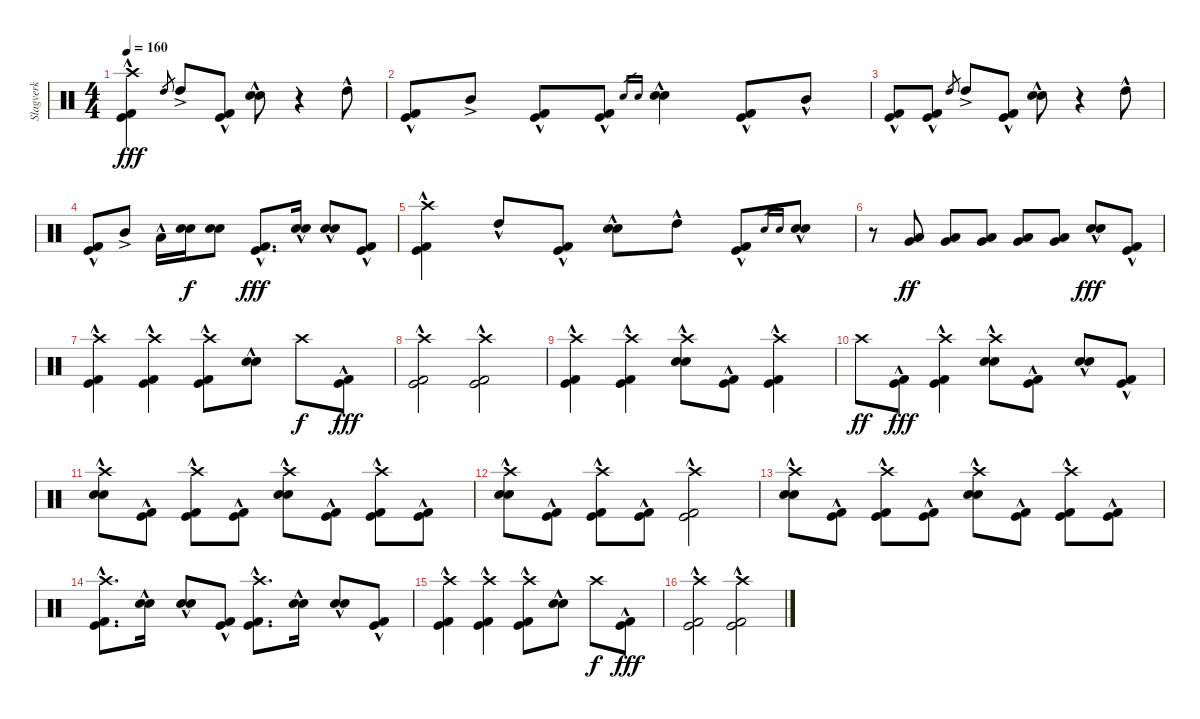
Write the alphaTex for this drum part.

\track ("Slagverk" "Slagverk") {instrument percussion}
\staff {score}
\articulation defaults
\ts (4 4)
\tempo 160
\clef neutral
\ks c
("Crash high (hit)" "Kick (hit)"{hac} "Kick (hit) 2"{hac}).4{dy fff} "High Tom (hit)".8{gr} "High Tom (hit)"{ac}.8 ("Kick (hit)"{hac} "Kick (hit) 2"{hac}).8 ("Electric Snare (hit)"{hac} "Snare (hit) 2"{hac}).8 r.4 "High Tom (hit)"{hac}.8 |
("Kick (hit)"{hac} "Kick (hit) 2"{hac}).8 "Mid Tom (hit)"{ac}.8 ("Kick (hit)"{hac} "Kick (hit) 2"{hac}).8 ("Kick (hit)"{hac} "Kick (hit) 2"{hac}).8 "Electric Snare (hit)".16{gr} "Snare (hit) 2".16{gr} ("Electric Snare (hit)"{hac} "Snare (hit) 2"{hac}).4 ("Kick (hit)"{hac} "Kick (hit) 2"{hac}).8 "Mid Tom (hit)"{hac}.8 |
("Kick (hit)"{hac} "Kick (hit) 2"{hac}).8 ("Kick (hit)"{hac} "Kick (hit) 2"{hac}).8 "High Tom (hit)".8{gr} "High Tom (hit)"{ac}.8 ("Kick (hit)"{hac} "Kick (hit) 2"{hac}).8 ("Electric Snare (hit)"{hac} "Snare (hit) 2"{hac}).8 r.4 "High Tom (hit)"{hac}.8 |
("Kick (hit)"{hac} "Kick (hit) 2"{hac}).8 "Mid Tom (hit)"{ac}.8 "Low Tom (hit)"{hac}.16 ("Electric Snare (hit)" "Snare (hit) 2").16{dy f} ("Snare (hit) 2" "Snare (hit) 2").8 ("Kick (hit)"{hac} "Kick (hit) 2"{hac}).8{d dy fff} ("Electric Snare (hit)"{hac} "Snare (hit) 2"{hac}).16 ("Electric Snare (hit)"{hac} "Snare (hit) 2"{hac}).8 ("Kick (hit)"{hac} "Kick (hit) 2"{hac}).8 |
("Crash high (hit)" "Kick (hit)"{hac} "Kick (hit) 2"{hac}).4 "High Tom (hit)"{hac}.8 ("Kick (hit)"{hac} "Kick (hit) 2"{hac}).8 ("Electric Snare (hit)"{hac} "Snare (hit) 2"{hac}).8 "High Tom (hit)"{hac}.8 ("Kick (hit)"{hac} "Kick (hit) 2"{hac}).8 "Electric Snare (hit)".16{gr} "Snare (hit) 2".16{gr} ("Electric Snare (hit)"{hac} "Snare (hit) 2"{hac}).8 |
r.8 ("Low Tom (hit)" "Very Low Tom (hit)").8{dy ff} ("Low Tom (hit)" "Very Low Tom (hit)").8 ("Low Tom (hit)" "Very Low Tom (hit)").8 ("Low Tom (hit)" "Very Low Tom (hit)").8 ("Low Tom (hit)" "Very Low Tom (hit)").8 ("Electric Snare (hit)"{hac} "Snare (hit) 2"{hac}).8{dy fff} ("Kick (hit)"{hac} "Kick (hit) 2"{hac}).8 |
("Crash high (hit)" "Kick (hit)"{hac} "Kick (hit) 2"{hac}).4 ("Crash high (hit)" "Kick (hit)"{hac} "Kick (hit) 2"{hac}).4 ("Crash high (hit)" "Kick (hit)"{hac} "Kick (hit) 2"{hac}).8 ("Electric Snare (hit)"{hac} "Snare (hit) 2"{hac}).8 "Crash high (hit)".8{dy f} ("Kick (hit)"{hac} "Kick (hit) 2"{hac}).8{dy fff} |
("Crash high (hit)" "Kick (hit)"{hac} "Kick (hit) 2"{hac}).2 ("Crash high (hit)" "Kick (hit)"{hac} "Kick (hit) 2"{hac}).2 |
("Crash high (hit)" "Kick (hit)"{hac} "Kick (hit) 2"{hac}).4 ("Crash high (hit)" "Kick (hit)"{hac} "Kick (hit) 2"{hac}).4 ("Crash high (hit)" "Electric Snare (hit)"{hac} "Snare (hit) 2"{hac}).8 ("Kick (hit)"{hac} "Kick (hit) 2"{hac}).8 ("Crash high (hit)" "Kick (hit)"{hac} "Kick (hit) 2"{hac}).4 |
"Crash high (hit)".8{dy ff} ("Kick (hit)"{hac} "Kick (hit) 2"{hac}).8{dy fff} ("Crash high (hit)" "Kick (hit)"{hac} "Kick (hit) 2"{hac}).4 ("Crash high (hit)" "Electric Snare (hit)"{hac} "Snare (hit) 2"{hac}).8 ("Kick (hit)"{hac} "Kick (hit) 2"{hac}).8 ("Electric Snare (hit)"{hac} "Snare (hit) 2"{hac}).8 ("Kick (hit)"{hac} "Kick (hit) 2"{hac}).8 |
("Crash high (hit)" "Electric Snare (hit)"{hac} "Snare (hit) 2"{hac}).8 ("Kick (hit)"{hac} "Kick (hit) 2"{hac}).8 ("Crash high (hit)" "Kick (hit)"{hac} "Kick (hit) 2"{hac}).8 ("Kick (hit)"{hac} "Kick (hit) 2"{hac}).8 ("Crash high (hit)" "Electric Snare (hit)"{hac} "Snare (hit) 2"{hac}).8 ("Kick (hit)"{hac} "Kick (hit) 2"{hac}).8 ("Crash high (hit)" "Kick (hit)"{hac} "Kick (hit) 2"{hac}).8 ("Kick (hit)"{hac} "Kick (hit) 2"{hac}).8 |
("Crash high (hit)" "Electric Snare (hit)"{hac} "Snare (hit) 2"{hac}).8 ("Kick (hit)"{hac} "Kick (hit) 2"{hac}).8 ("Crash high (hit)" "Kick (hit)"{hac} "Kick (hit) 2"{hac}).8 ("Kick (hit)"{hac} "Kick (hit) 2"{hac}).8 ("Crash high (hit)" "Kick (hit)"{hac} "Kick (hit) 2"{hac}).2 |
("Crash high (hit)" "Electric Snare (hit)"{hac} "Snare (hit) 2"{hac}).8 ("Kick (hit)"{hac} "Kick (hit) 2"{hac}).8 ("Crash high (hit)" "Kick (hit)"{hac} "Kick (hit) 2"{hac}).8 ("Kick (hit)"{hac} "Kick (hit) 2"{hac}).8 ("Crash high (hit)" "Electric Snare (hit)"{hac} "Snare (hit) 2"{hac}).8 ("Kick (hit)"{hac} "Kick (hit) 2"{hac}).8 ("Crash high (hit)" "Kick (hit)"{hac} "Kick (hit) 2"{hac}).8 ("Kick (hit)"{hac} "Kick (hit) 2"{hac}).8 |
("Crash high (hit)" "Kick (hit)"{hac} "Kick (hit) 2"{hac}).8{d} ("Electric Snare (hit)"{hac} "Snare (hit) 2"{hac}).16 ("Electric Snare (hit)"{hac} "Snare (hit) 2"{hac}).8 ("Kick (hit)"{hac} "Kick (hit) 2"{hac}).8 ("Crash high (hit)" "Kick (hit)"{hac} "Kick (hit) 2"{hac}).8{d} ("Electric Snare (hit)"{hac} "Snare (hit) 2"{hac}).16 ("Electric Snare (hit)"{hac} "Snare (hit) 2"{hac}).8 ("Kick (hit)"{hac} "Kick (hit) 2"{hac}).8 |
("Crash high (hit)" "Kick (hit)"{hac} "Kick (hit) 2"{hac}).4 ("Crash high (hit)" "Kick (hit)"{hac} "Kick (hit) 2"{hac}).4 ("Crash high (hit)" "Kick (hit)"{hac} "Kick (hit) 2"{hac}).8 ("Electric Snare (hit)"{hac} "Snare (hit) 2"{hac}).8 "Crash high (hit)".8{dy f} ("Kick (hit)"{hac} "Kick (hit) 2"{hac}).8{dy fff} |
("Crash high (hit)" "Kick (hit)"{hac} "Kick (hit) 2"{hac}).2 ("Crash high (hit)" "Kick (hit)"{hac} "Kick (hit) 2"{hac}).2
